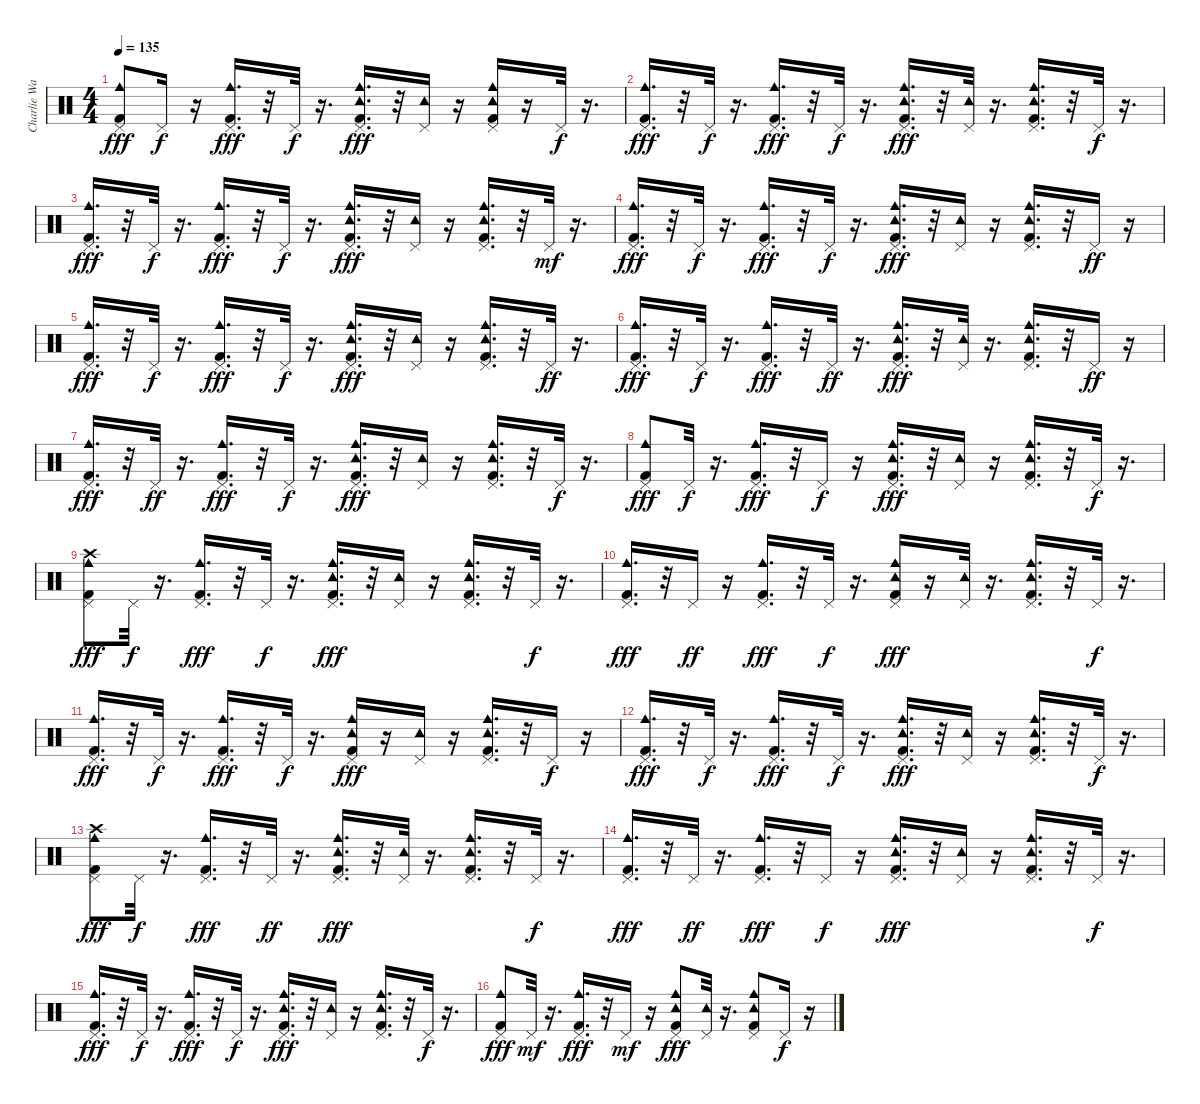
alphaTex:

\track ("Charlie Watts - Drums" "Charlie Wa") {instrument percussion}
\staff {score}
\articulation defaults
\ts (4 4)
\tempo 135
\clef neutral
\ks c
("Kick (hit) 2" "Pedal Hi-Hat (hit)" "Cowbell medium (hit)").8{dy fff} "Pedal Hi-Hat (hit)".16{dy f} r.16 ("Kick (hit) 2" "Pedal Hi-Hat (hit)" "Cowbell medium (hit)").16{d dy fff} r.32 "Pedal Hi-Hat (hit)".32{dy f} r.16{d} ("Kick (hit) 2" "Pedal Hi-Hat (hit)" "Tambourine (hit)" "Cowbell medium (hit)").16{d dy fff} r.32 ("Pedal Hi-Hat (hit)" "Tambourine (hit)").16 r.16 ("Kick (hit) 2" "Pedal Hi-Hat (hit)" "Tambourine (hit)" "Cowbell medium (hit)").16 r.16 "Pedal Hi-Hat (hit)".32{dy f} r.16{d} |
("Kick (hit) 2" "Pedal Hi-Hat (hit)" "Cowbell medium (hit)").16{d dy fff} r.32 "Pedal Hi-Hat (hit)".32{dy f} r.16{d} ("Kick (hit) 2" "Pedal Hi-Hat (hit)" "Cowbell medium (hit)").16{d dy fff} r.32 "Pedal Hi-Hat (hit)".32{dy f} r.16{d} ("Kick (hit) 2" "Pedal Hi-Hat (hit)" "Tambourine (hit)" "Cowbell medium (hit)").16{d dy fff} r.32 ("Pedal Hi-Hat (hit)" "Tambourine (hit)").32 r.16{d} ("Kick (hit) 2" "Pedal Hi-Hat (hit)" "Tambourine (hit)" "Cowbell medium (hit)").16{d} r.32 "Pedal Hi-Hat (hit)".32{dy f} r.16{d} |
("Kick (hit) 2" "Pedal Hi-Hat (hit)" "Cowbell medium (hit)").16{d dy fff} r.32 "Pedal Hi-Hat (hit)".32{dy f} r.16{d} ("Kick (hit) 2" "Pedal Hi-Hat (hit)" "Cowbell medium (hit)").16{d dy fff} r.32 "Pedal Hi-Hat (hit)".32{dy f} r.16{d} ("Kick (hit) 2" "Pedal Hi-Hat (hit)" "Tambourine (hit)" "Cowbell medium (hit)").16{d dy fff} r.32 ("Pedal Hi-Hat (hit)" "Tambourine (hit)").16 r.16 ("Kick (hit) 2" "Pedal Hi-Hat (hit)" "Tambourine (hit)" "Cowbell medium (hit)").16{d} r.32 "Pedal Hi-Hat (hit)".32{dy mf} r.16{d} |
("Kick (hit) 2" "Pedal Hi-Hat (hit)" "Cowbell medium (hit)").16{d dy fff} r.32 "Pedal Hi-Hat (hit)".32{dy f} r.16{d} ("Kick (hit) 2" "Pedal Hi-Hat (hit)" "Cowbell medium (hit)").16{d dy fff} r.32 "Pedal Hi-Hat (hit)".32{dy f} r.16{d} ("Kick (hit) 2" "Pedal Hi-Hat (hit)" "Tambourine (hit)" "Cowbell medium (hit)").16{d dy fff} r.32 ("Pedal Hi-Hat (hit)" "Tambourine (hit)").16 r.16 ("Kick (hit) 2" "Pedal Hi-Hat (hit)" "Tambourine (hit)" "Cowbell medium (hit)").16{d} r.32 "Pedal Hi-Hat (hit)".16{dy ff} r.16 |
("Kick (hit) 2" "Pedal Hi-Hat (hit)" "Cowbell medium (hit)").16{d dy fff} r.32 "Pedal Hi-Hat (hit)".32{dy f} r.16{d} ("Kick (hit) 2" "Pedal Hi-Hat (hit)" "Cowbell medium (hit)").16{d dy fff} r.32 "Pedal Hi-Hat (hit)".32{dy f} r.16{d} ("Kick (hit) 2" "Pedal Hi-Hat (hit)" "Tambourine (hit)" "Cowbell medium (hit)").16{d dy fff} r.32 ("Pedal Hi-Hat (hit)" "Tambourine (hit)").16 r.16 ("Kick (hit) 2" "Pedal Hi-Hat (hit)" "Tambourine (hit)" "Cowbell medium (hit)").16{d} r.32 "Pedal Hi-Hat (hit)".32{dy ff} r.16{d} |
("Kick (hit) 2" "Pedal Hi-Hat (hit)" "Cowbell medium (hit)").16{d dy fff} r.32 "Pedal Hi-Hat (hit)".32{dy f} r.16{d} ("Kick (hit) 2" "Pedal Hi-Hat (hit)" "Cowbell medium (hit)").16{d dy fff} r.32 "Pedal Hi-Hat (hit)".32{dy ff} r.16{d} ("Kick (hit) 2" "Pedal Hi-Hat (hit)" "Tambourine (hit)" "Cowbell medium (hit)").16{d dy fff} r.32 ("Pedal Hi-Hat (hit)" "Tambourine (hit)").32 r.16{d} ("Kick (hit) 2" "Pedal Hi-Hat (hit)" "Tambourine (hit)" "Cowbell medium (hit)").16{d} r.32 "Pedal Hi-Hat (hit)".16{dy ff} r.16 |
("Kick (hit) 2" "Pedal Hi-Hat (hit)" "Cowbell medium (hit)").16{d dy fff} r.32 "Pedal Hi-Hat (hit)".32{dy ff} r.16{d} ("Kick (hit) 2" "Pedal Hi-Hat (hit)" "Cowbell medium (hit)").16{d dy fff} r.32 "Pedal Hi-Hat (hit)".32{dy f} r.16{d} ("Kick (hit) 2" "Pedal Hi-Hat (hit)" "Tambourine (hit)" "Cowbell medium (hit)").16{d dy fff} r.32 ("Pedal Hi-Hat (hit)" "Tambourine (hit)").16 r.16 ("Kick (hit) 2" "Pedal Hi-Hat (hit)" "Tambourine (hit)" "Cowbell medium (hit)").16{d} r.32 "Pedal Hi-Hat (hit)".32{dy f} r.16{d} |
("Kick (hit) 2" "Pedal Hi-Hat (hit)" "Cowbell medium (hit)").8{dy fff} "Pedal Hi-Hat (hit)".32{dy f} r.16{d} ("Kick (hit) 2" "Pedal Hi-Hat (hit)" "Cowbell medium (hit)").16{d dy fff} r.32 "Pedal Hi-Hat (hit)".16{dy f} r.16 ("Kick (hit) 2" "Pedal Hi-Hat (hit)" "Tambourine (hit)" "Cowbell medium (hit)").16{d dy fff} r.32 ("Pedal Hi-Hat (hit)" "Tambourine (hit)").16 r.16 ("Kick (hit) 2" "Pedal Hi-Hat (hit)" "Tambourine (hit)" "Cowbell medium (hit)").16{d} r.32 "Pedal Hi-Hat (hit)".32{dy f} r.16{d} |
("Kick (hit) 2" "Pedal Hi-Hat (hit)" "Crash high (hit)" "Cowbell medium (hit)").8{dy fff} "Pedal Hi-Hat (hit)".32{dy f} r.16{d} ("Kick (hit) 2" "Pedal Hi-Hat (hit)" "Cowbell medium (hit)").16{d dy fff} r.32 "Pedal Hi-Hat (hit)".32{dy f} r.16{d} ("Kick (hit) 2" "Pedal Hi-Hat (hit)" "Tambourine (hit)" "Cowbell medium (hit)").16{d dy fff} r.32 ("Pedal Hi-Hat (hit)" "Tambourine (hit)").16 r.16 ("Kick (hit) 2" "Pedal Hi-Hat (hit)" "Tambourine (hit)" "Cowbell medium (hit)").16{d} r.32 "Pedal Hi-Hat (hit)".32{dy f} r.16{d} |
("Kick (hit) 2" "Pedal Hi-Hat (hit)" "Cowbell medium (hit)").16{d dy fff} r.32 "Pedal Hi-Hat (hit)".16{dy ff} r.16 ("Kick (hit) 2" "Pedal Hi-Hat (hit)" "Cowbell medium (hit)").16{d dy fff} r.32 "Pedal Hi-Hat (hit)".32{dy f} r.16{d} ("Kick (hit) 2" "Pedal Hi-Hat (hit)" "Tambourine (hit)" "Cowbell medium (hit)").16{dy fff} r.16 ("Pedal Hi-Hat (hit)" "Tambourine (hit)").32 r.16{d} ("Kick (hit) 2" "Pedal Hi-Hat (hit)" "Tambourine (hit)" "Cowbell medium (hit)").16{d} r.32 "Pedal Hi-Hat (hit)".32{dy f} r.16{d} |
("Kick (hit) 2" "Pedal Hi-Hat (hit)" "Cowbell medium (hit)").16{d dy fff} r.32 "Pedal Hi-Hat (hit)".32{dy f} r.16{d} ("Kick (hit) 2" "Pedal Hi-Hat (hit)" "Cowbell medium (hit)").16{d dy fff} r.32 "Pedal Hi-Hat (hit)".32{dy f} r.16{d} ("Kick (hit) 2" "Pedal Hi-Hat (hit)" "Tambourine (hit)" "Cowbell medium (hit)").16{dy fff} r.16 ("Pedal Hi-Hat (hit)" "Tambourine (hit)").16 r.16 ("Kick (hit) 2" "Pedal Hi-Hat (hit)" "Tambourine (hit)" "Cowbell medium (hit)").16{d} r.32 "Pedal Hi-Hat (hit)".16{dy f} r.16 |
("Kick (hit) 2" "Pedal Hi-Hat (hit)" "Cowbell medium (hit)").16{d dy fff} r.32 "Pedal Hi-Hat (hit)".32{dy f} r.16{d} ("Kick (hit) 2" "Pedal Hi-Hat (hit)" "Cowbell medium (hit)").16{d dy fff} r.32 "Pedal Hi-Hat (hit)".32{dy f} r.16{d} ("Kick (hit) 2" "Pedal Hi-Hat (hit)" "Tambourine (hit)" "Cowbell medium (hit)").16{d dy fff} r.32 ("Pedal Hi-Hat (hit)" "Tambourine (hit)").16 r.16 ("Kick (hit) 2" "Pedal Hi-Hat (hit)" "Tambourine (hit)" "Cowbell medium (hit)").16{d} r.32 "Pedal Hi-Hat (hit)".32{dy f} r.16{d} |
("Kick (hit) 2" "Pedal Hi-Hat (hit)" "Crash high (hit)" "Cowbell medium (hit)").8{dy fff} "Pedal Hi-Hat (hit)".32{dy f} r.16{d} ("Kick (hit) 2" "Pedal Hi-Hat (hit)" "Cowbell medium (hit)").16{d dy fff} r.32 "Pedal Hi-Hat (hit)".32{dy ff} r.16{d} ("Kick (hit) 2" "Pedal Hi-Hat (hit)" "Tambourine (hit)" "Cowbell medium (hit)").16{d dy fff} r.32 ("Pedal Hi-Hat (hit)" "Tambourine (hit)").32 r.16{d} ("Kick (hit) 2" "Pedal Hi-Hat (hit)" "Tambourine (hit)" "Cowbell medium (hit)").16{d} r.32 "Pedal Hi-Hat (hit)".32{dy f} r.16{d} |
("Kick (hit) 2" "Pedal Hi-Hat (hit)" "Cowbell medium (hit)").16{d dy fff} r.32 "Pedal Hi-Hat (hit)".32{dy ff} r.16{d} ("Kick (hit) 2" "Pedal Hi-Hat (hit)" "Cowbell medium (hit)").16{d dy fff} r.32 "Pedal Hi-Hat (hit)".16{dy f} r.16 ("Kick (hit) 2" "Pedal Hi-Hat (hit)" "Tambourine (hit)" "Cowbell medium (hit)").16{d dy fff} r.32 ("Pedal Hi-Hat (hit)" "Tambourine (hit)").16 r.16 ("Kick (hit) 2" "Pedal Hi-Hat (hit)" "Tambourine (hit)" "Cowbell medium (hit)").16{d} r.32 "Pedal Hi-Hat (hit)".32{dy f} r.16{d} |
("Kick (hit) 2" "Pedal Hi-Hat (hit)" "Cowbell medium (hit)").16{d dy fff} r.32 "Pedal Hi-Hat (hit)".32{dy f} r.16{d} ("Kick (hit) 2" "Pedal Hi-Hat (hit)" "Cowbell medium (hit)").16{d dy fff} r.32 "Pedal Hi-Hat (hit)".32{dy f} r.16{d} ("Kick (hit) 2" "Pedal Hi-Hat (hit)" "Tambourine (hit)" "Cowbell medium (hit)").16{d dy fff} r.32 ("Pedal Hi-Hat (hit)" "Tambourine (hit)").16 r.16 ("Kick (hit) 2" "Pedal Hi-Hat (hit)" "Tambourine (hit)" "Cowbell medium (hit)").16{d} r.32 "Pedal Hi-Hat (hit)".32{dy f} r.16{d} |
("Kick (hit) 2" "Pedal Hi-Hat (hit)" "Cowbell medium (hit)").8{dy fff} "Pedal Hi-Hat (hit)".32{dy mf} r.16{d} ("Kick (hit) 2" "Pedal Hi-Hat (hit)" "Cowbell medium (hit)").16{d dy fff} r.32 "Pedal Hi-Hat (hit)".16{dy mf} r.16 ("Kick (hit) 2" "Pedal Hi-Hat (hit)" "Tambourine (hit)" "Cowbell medium (hit)").8{dy fff} ("Pedal Hi-Hat (hit)" "Tambourine (hit)").32 r.16{d} ("Kick (hit) 2" "Pedal Hi-Hat (hit)" "Tambourine (hit)" "Cowbell medium (hit)").8 "Pedal Hi-Hat (hit)".16{dy f} r.16
